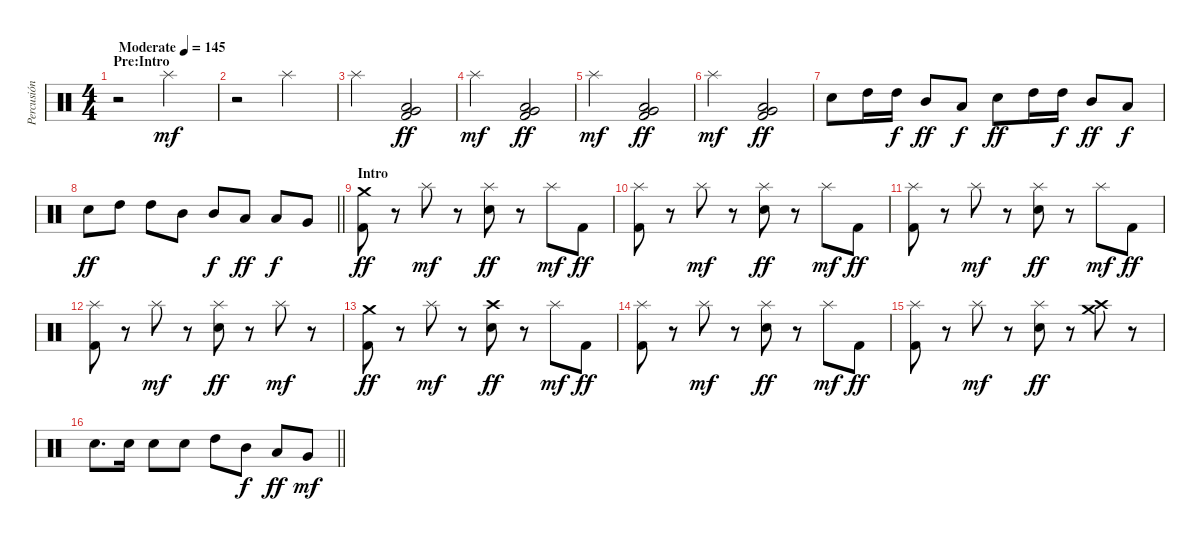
\track ("Percusión" "Percusión") {instrument percussion}
\staff {score}
\articulation defaults
\ts (4 4)
\section ("" "Pre:Intro")
\tempo (145 "Moderate")
\clef neutral
\ks c
r.2{dy mf} "Splash (hit)".2 |
r.2 "Splash (hit)".2 |
"Splash (hit)".2 ("Low Floor Tom (hit)" "Very Low Tom (hit)" "Kick (hit) 2").2{dy ff} |
"Splash (hit)".2{dy mf} ("Low Floor Tom (hit)" "Very Low Tom (hit)" "Kick (hit) 2").2{dy ff} |
"Splash (hit)".2{dy mf} ("Low Floor Tom (hit)" "Very Low Tom (hit)" "Kick (hit) 2").2{dy ff} |
"Splash (hit)".2{dy mf} ("Low Floor Tom (hit)" "Very Low Tom (hit)" "Kick (hit) 2").2{dy ff} |
"Electric Snare (hit)".8 "High Tom (hit)".16 "High Tom (hit)".16{dy f} "Mid Tom (hit)".8{dy ff} "Low Tom (hit)".8{dy f} "Electric Snare (hit)".8{dy ff} "High Tom (hit)".16 "High Tom (hit)".16{dy f} "Mid Tom (hit)".8{dy ff} "Low Tom (hit)".8{dy f} |
\barLineRight lightlight "Electric Snare (hit)".8{dy ff} "High Tom (hit)".8 "High Tom (hit)".8 "Mid Tom (hit)".8 "Mid Tom (hit)".8{dy f} "Low Tom (hit)".8{dy ff} "Low Tom (hit)".8{dy f} "Very Low Tom (hit)".8
|
\section ("" "Intro")
("Crash medium (hit)" "Kick (hit) 2").8{dy ff} r.8 "Splash (hit)".8{dy mf} r.8 ("Splash (hit)" "Electric Snare (hit)").8{dy ff} r.8 "Splash (hit)".8{dy mf} "Kick (hit) 2".8{dy ff} |
("Splash (hit)" "Kick (hit) 2").8 r.8 "Splash (hit)".8{dy mf} r.8 ("Splash (hit)" "Electric Snare (hit)").8{dy ff} r.8 "Splash (hit)".8{dy mf} "Kick (hit) 2".8{dy ff} |
("Splash (hit)" "Kick (hit) 2").8 r.8 "Splash (hit)".8{dy mf} r.8 ("Splash (hit)" "Electric Snare (hit)").8{dy ff} r.8 "Splash (hit)".8{dy mf} "Kick (hit) 2".8{dy ff} |
("Splash (hit)" "Kick (hit) 2").8 r.8 "Splash (hit)".8{dy mf} r.8 ("Splash (hit)" "Electric Snare (hit)").8{dy ff} r.8 "Splash (hit)".8{dy mf} r.8 |
("Crash medium (hit)" "Kick (hit) 2").8{dy ff} r.8 "Splash (hit)".8{dy mf} r.8 ("Crash high (hit)" "Electric Snare (hit)").8{dy ff} r.8 "Splash (hit)".8{dy mf} "Kick (hit) 2".8{dy ff} |
("Splash (hit)" "Kick (hit) 2").8 r.8 "Splash (hit)".8{dy mf} r.8 ("Splash (hit)" "Electric Snare (hit)").8{dy ff} r.8 "Splash (hit)".8{dy mf} "Kick (hit) 2".8{dy ff} |
("Splash (hit)" "Kick (hit) 2").8 r.8 "Splash (hit)".8{dy mf} r.8 ("Splash (hit)" "Electric Snare (hit)").8{dy ff} r.8 ("Crash medium (hit)" "Crash high (hit)").8 r.8 |
\barLineRight lightlight "Electric Snare (hit)".8{d} "Electric Snare (hit)".16 "Electric Snare (hit)".8 "Electric Snare (hit)".8 "High Tom (hit)".8 "Mid Tom (hit)".8{dy f} "Low Tom (hit)".8{dy ff} "Very Low Tom (hit)".8{dy mf}
